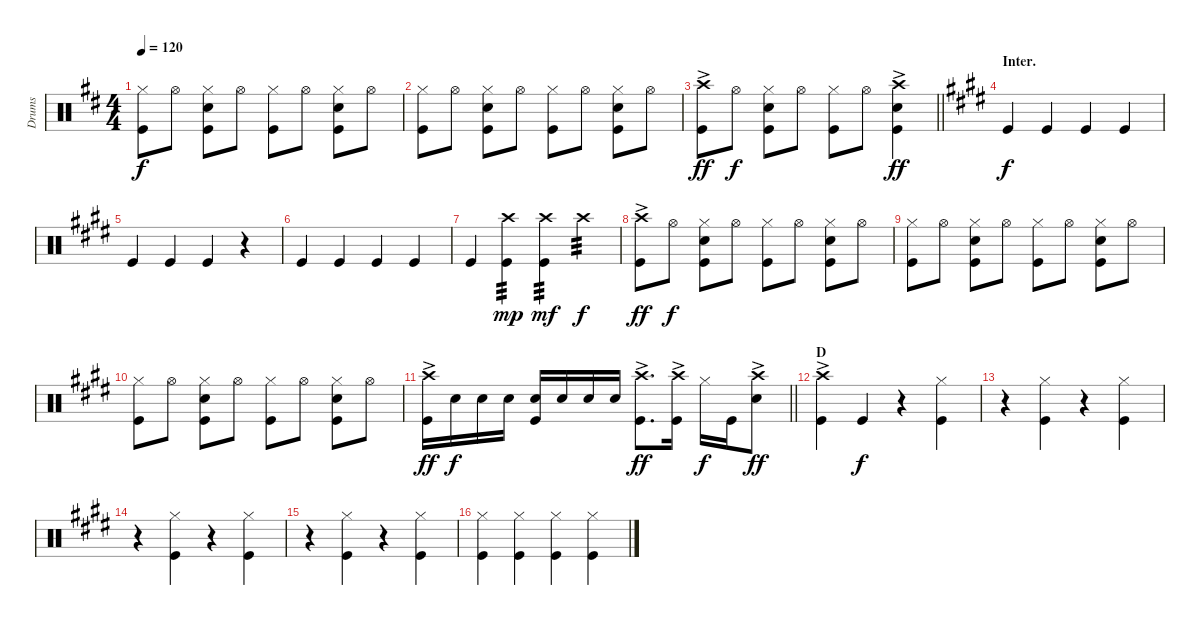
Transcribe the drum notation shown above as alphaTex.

\track ("Drums" "Drums") {instrument percussion}
\staff {score}
\articulation defaults
\ts (4 4)
\tempo 120
\clef neutral
\ks d
("Hi-Hat (closed)" "Kick (hit)").8{dy f} "Hi-Hat (open)".8 ("Hi-Hat (closed)" "Kick (hit)" "Snare (hit) 2").8 "Hi-Hat (open)".8 ("Hi-Hat (closed)" "Kick (hit)").8 "Hi-Hat (open)".8 ("Hi-Hat (closed)" "Kick (hit)" "Snare (hit) 2").8 "Hi-Hat (open)".8 |
("Hi-Hat (closed)" "Kick (hit)").8 "Hi-Hat (open)".8 ("Hi-Hat (closed)" "Kick (hit)" "Snare (hit) 2").8 "Hi-Hat (open)".8 ("Hi-Hat (closed)" "Kick (hit)").8 "Hi-Hat (open)".8 ("Hi-Hat (closed)" "Kick (hit)" "Snare (hit) 2").8 "Hi-Hat (open)".8 |
\barLineRight lightlight
("Crash high (hit)"{ac} "Kick (hit)").8{dy ff} "Hi-Hat (open)".8{dy f} ("Hi-Hat (closed)" "Kick (hit)" "Snare (hit) 2").8 "Hi-Hat (open)".8 ("Hi-Hat (closed)" "Kick (hit)").8 "Hi-Hat (open)".8 ("Crash high (hit)"{ac} "Snare (hit) 2" "Kick (hit)").4{dy ff} |
\section ("" "Inter.")
\ks e "Kick (hit)".4{dy f} "Kick (hit)".4 "Kick (hit)".4 "Kick (hit)".4
|
"Kick (hit)".4 "Kick (hit)".4 "Kick (hit)".4 r.4 |
"Kick (hit)".4 "Kick (hit)".4 "Kick (hit)".4 "Kick (hit)".4 |
"Kick (hit)".4 ("Kick (hit)" "Crash high (hit)").4{tp 3 dy mp} ("Kick (hit)" "Crash high (hit)").4{tp 3 dy mf} "Crash high (hit)".4{tp 3 dy f} |
("Crash high (hit)"{ac} "Kick (hit)").8{dy ff} "Hi-Hat (open)".8{dy f} ("Hi-Hat (closed)" "Kick (hit)" "Snare (hit) 2").8 "Hi-Hat (open)".8 ("Hi-Hat (closed)" "Kick (hit)").8 "Hi-Hat (open)".8 ("Hi-Hat (closed)" "Kick (hit)" "Snare (hit) 2").8 "Hi-Hat (open)".8 |
("Hi-Hat (closed)" "Kick (hit)").8 "Hi-Hat (open)".8 ("Hi-Hat (closed)" "Kick (hit)" "Snare (hit) 2").8 "Hi-Hat (open)".8 ("Hi-Hat (closed)" "Kick (hit)").8 "Hi-Hat (open)".8 ("Hi-Hat (closed)" "Kick (hit)" "Snare (hit) 2").8 "Hi-Hat (open)".8 |
("Hi-Hat (closed)" "Kick (hit)").8 "Hi-Hat (open)".8 ("Hi-Hat (closed)" "Kick (hit)" "Snare (hit) 2").8 "Hi-Hat (open)".8 ("Hi-Hat (closed)" "Kick (hit)").8 "Hi-Hat (open)".8 ("Hi-Hat (closed)" "Kick (hit)" "Snare (hit) 2").8 "Hi-Hat (open)".8 |
\barLineRight lightlight
("Crash high (hit)"{ac} "Kick (hit)").16{dy ff} "Snare (hit) 2".16{dy f} "Snare (hit) 2".16 "Snare (hit) 2".16 ("Snare (hit) 2" "Kick (hit)").16 "Snare (hit) 2".16 "Snare (hit) 2".16 "Snare (hit) 2".16 ("Kick (hit)" "Crash high (hit)"{ac}).8{d dy ff} ("Crash high (hit)"{ac} "Kick (hit)").16 "Hi-Hat (closed)".16{dy f} "Kick (hit)".16 ("Crash high (hit)"{ac} "Snare (hit) 2").8{dy ff} |
\section ("" "D")
("Crash high (hit)"{ac} "Kick (hit)").4 "Kick (hit)".4{dy f} r.4 ("Hi-Hat (closed)" "Kick (hit)").4 |
r.4 ("Hi-Hat (closed)" "Kick (hit)").4 r.4 ("Hi-Hat (closed)" "Kick (hit)").4 |
r.4 ("Hi-Hat (closed)" "Kick (hit)").4 r.4 ("Hi-Hat (closed)" "Kick (hit)").4 |
r.4 ("Hi-Hat (closed)" "Kick (hit)").4 r.4 ("Hi-Hat (closed)" "Kick (hit)").4 |
("Hi-Hat (closed)" "Kick (hit)").4 ("Hi-Hat (closed)" "Kick (hit)").4 ("Hi-Hat (closed)" "Kick (hit)").4 ("Hi-Hat (closed)" "Kick (hit)").4
